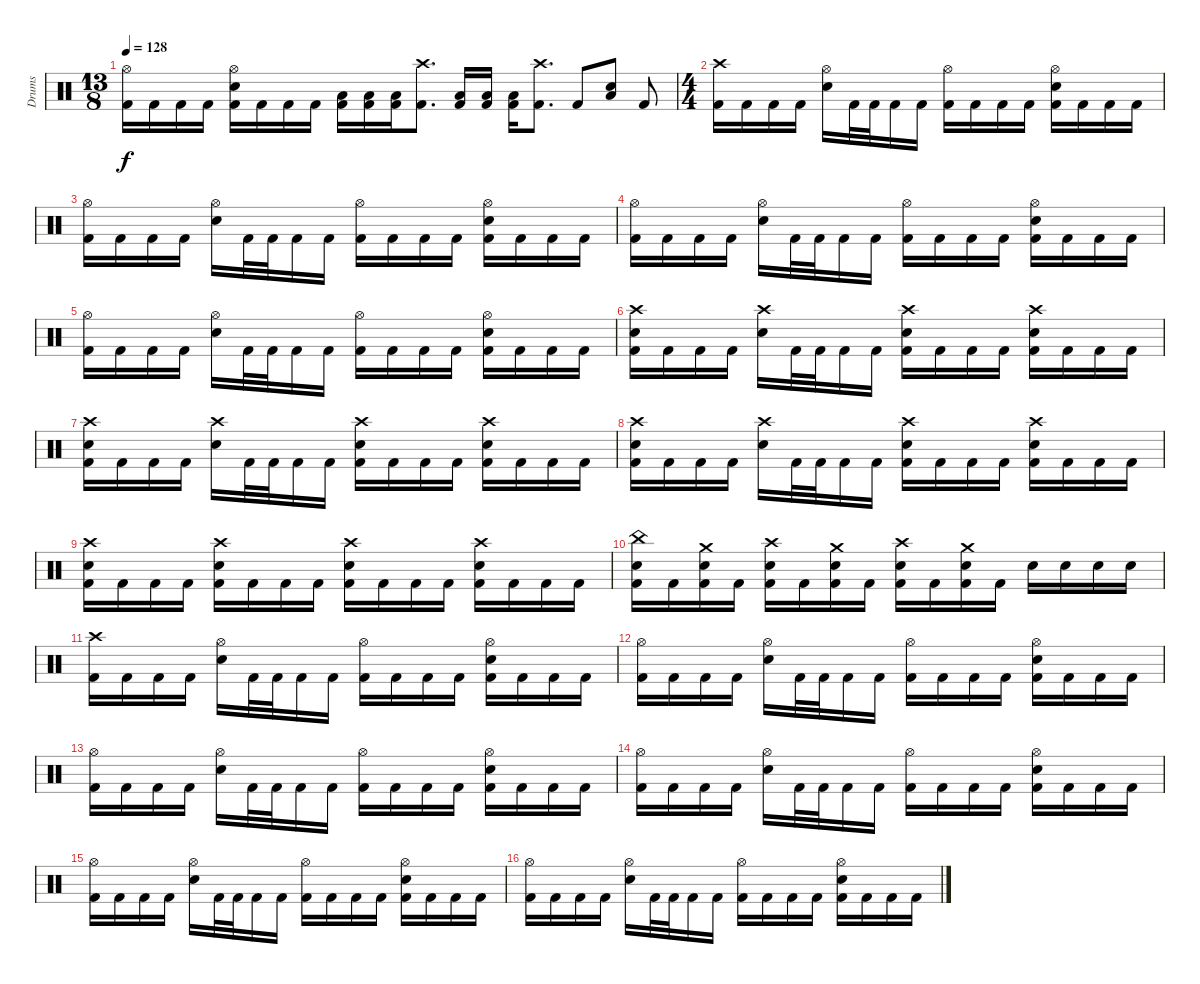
\track ("Drums" "Drums") {instrument percussion}
\staff {score}
\articulation defaults
\ts (13 8)
\tempo 128
\clef neutral
\ks c
("Hi-Hat (open)" "Kick (hit) 2").16{dy f} "Kick (hit) 2".16 "Kick (hit) 2".16 "Kick (hit) 2".16 ("Hi-Hat (open)" "Electric Snare (hit)" "Kick (hit) 2").16 "Kick (hit) 2".16 "Kick (hit) 2".16 "Kick (hit) 2".16 ("Low Tom (hit)" "Kick (hit) 2").16 ("Low Tom (hit)" "Kick (hit) 2").16 ("Low Tom (hit)" "Kick (hit) 2").16 ("Crash high (hit)" "Kick (hit) 2").8{d} ("Low Tom (hit)" "Kick (hit) 2").16 ("Low Tom (hit)" "Kick (hit) 2").16 ("Low Tom (hit)" "Kick (hit) 2").16 ("Crash high (hit)" "Kick (hit) 2").8{d} "Kick (hit) 2".8 ("Low Floor Tom (hit)" "Electric Snare (hit)").8 "Kick (hit) 2".8 |
\ts (4 4)
("Crash high (hit)" "Kick (hit) 2").16 "Kick (hit) 2".16 "Kick (hit) 2".16 "Kick (hit) 2".16 ("Hi-Hat (open)" "Electric Snare (hit)").16 "Kick (hit) 2".32 "Kick (hit) 2".32 "Kick (hit) 2".16 "Kick (hit) 2".16 ("Hi-Hat (open)" "Kick (hit) 2").16 "Kick (hit) 2".16 "Kick (hit) 2".16 "Kick (hit) 2".16 ("Hi-Hat (open)" "Electric Snare (hit)" "Kick (hit) 2").16 "Kick (hit) 2".16 "Kick (hit) 2".16 "Kick (hit) 2".16 |
("Hi-Hat (open)" "Kick (hit) 2").16 "Kick (hit) 2".16 "Kick (hit) 2".16 "Kick (hit) 2".16 ("Hi-Hat (open)" "Electric Snare (hit)").16 "Kick (hit) 2".32 "Kick (hit) 2".32 "Kick (hit) 2".16 "Kick (hit) 2".16 ("Hi-Hat (open)" "Kick (hit) 2").16 "Kick (hit) 2".16 "Kick (hit) 2".16 "Kick (hit) 2".16 ("Hi-Hat (open)" "Electric Snare (hit)" "Kick (hit) 2").16 "Kick (hit) 2".16 "Kick (hit) 2".16 "Kick (hit) 2".16 |
("Hi-Hat (open)" "Kick (hit) 2").16 "Kick (hit) 2".16 "Kick (hit) 2".16 "Kick (hit) 2".16 ("Hi-Hat (open)" "Electric Snare (hit)").16 "Kick (hit) 2".32 "Kick (hit) 2".32 "Kick (hit) 2".16 "Kick (hit) 2".16 ("Hi-Hat (open)" "Kick (hit) 2").16 "Kick (hit) 2".16 "Kick (hit) 2".16 "Kick (hit) 2".16 ("Hi-Hat (open)" "Electric Snare (hit)" "Kick (hit) 2").16 "Kick (hit) 2".16 "Kick (hit) 2".16 "Kick (hit) 2".16 |
("Hi-Hat (open)" "Kick (hit) 2").16 "Kick (hit) 2".16 "Kick (hit) 2".16 "Kick (hit) 2".16 ("Hi-Hat (open)" "Electric Snare (hit)").16 "Kick (hit) 2".32 "Kick (hit) 2".32 "Kick (hit) 2".16 "Kick (hit) 2".16 ("Hi-Hat (open)" "Kick (hit) 2").16 "Kick (hit) 2".16 "Kick (hit) 2".16 "Kick (hit) 2".16 ("Hi-Hat (open)" "Electric Snare (hit)" "Kick (hit) 2").16 "Kick (hit) 2".16 "Kick (hit) 2".16 "Kick (hit) 2".16 |
("Crash high (hit)" "Electric Snare (hit)" "Kick (hit) 2").16 "Kick (hit) 2".16 "Kick (hit) 2".16 "Kick (hit) 2".16 ("Crash high (hit)" "Electric Snare (hit)").16 "Kick (hit) 2".32 "Kick (hit) 2".32 "Kick (hit) 2".16 "Kick (hit) 2".16 ("Crash high (hit)" "Electric Snare (hit)" "Kick (hit) 2").16 "Kick (hit) 2".16 "Kick (hit) 2".16 "Kick (hit) 2".16 ("Crash high (hit)" "Electric Snare (hit)" "Kick (hit) 2").16 "Kick (hit) 2".16 "Kick (hit) 2".16 "Kick (hit) 2".16 |
("Crash high (hit)" "Electric Snare (hit)" "Kick (hit) 2").16 "Kick (hit) 2".16 "Kick (hit) 2".16 "Kick (hit) 2".16 ("Crash high (hit)" "Electric Snare (hit)").16 "Kick (hit) 2".32 "Kick (hit) 2".32 "Kick (hit) 2".16 "Kick (hit) 2".16 ("Crash high (hit)" "Electric Snare (hit)" "Kick (hit) 2").16 "Kick (hit) 2".16 "Kick (hit) 2".16 "Kick (hit) 2".16 ("Crash high (hit)" "Electric Snare (hit)" "Kick (hit) 2").16 "Kick (hit) 2".16 "Kick (hit) 2".16 "Kick (hit) 2".16 |
("Crash high (hit)" "Electric Snare (hit)" "Kick (hit) 2").16 "Kick (hit) 2".16 "Kick (hit) 2".16 "Kick (hit) 2".16 ("Crash high (hit)" "Electric Snare (hit)").16 "Kick (hit) 2".32 "Kick (hit) 2".32 "Kick (hit) 2".16 "Kick (hit) 2".16 ("Crash high (hit)" "Electric Snare (hit)" "Kick (hit) 2").16 "Kick (hit) 2".16 "Kick (hit) 2".16 "Kick (hit) 2".16 ("Crash high (hit)" "Electric Snare (hit)" "Kick (hit) 2").16 "Kick (hit) 2".16 "Kick (hit) 2".16 "Kick (hit) 2".16 |
("Crash high (hit)" "Electric Snare (hit)" "Kick (hit) 2").16 "Kick (hit) 2".16 "Kick (hit) 2".16 "Kick (hit) 2".16 ("Crash high (hit)" "Electric Snare (hit)" "Kick (hit) 2").16 "Kick (hit) 2".16 "Kick (hit) 2".16 "Kick (hit) 2".16 ("Crash high (hit)" "Electric Snare (hit)" "Kick (hit) 2").16 "Kick (hit) 2".16 "Kick (hit) 2".16 "Kick (hit) 2".16 ("Crash high (hit)" "Electric Snare (hit)" "Kick (hit) 2").16 "Kick (hit) 2".16 "Kick (hit) 2".16 "Kick (hit) 2".16 |
("China (hit)" "Electric Snare (hit)" "Kick (hit) 2").16 "Kick (hit) 2".16 ("Crash medium (hit)" "Electric Snare (hit)" "Kick (hit) 2").16 "Kick (hit) 2".16 ("Crash high (hit)" "Electric Snare (hit)" "Kick (hit) 2").16 "Kick (hit) 2".16 ("Crash medium (hit)" "Electric Snare (hit)" "Kick (hit) 2").16 "Kick (hit) 2".16 ("Crash high (hit)" "Electric Snare (hit)" "Kick (hit) 2").16 "Kick (hit) 2".16 ("Crash medium (hit)" "Electric Snare (hit)" "Kick (hit) 2").16 "Kick (hit) 2".16 "Electric Snare (hit)".16 "Electric Snare (hit)".16 "Electric Snare (hit)".16 "Electric Snare (hit)".16 |
("Crash high (hit)" "Kick (hit) 2").16 "Kick (hit) 2".16 "Kick (hit) 2".16 "Kick (hit) 2".16 ("Hi-Hat (open)" "Electric Snare (hit)").16 "Kick (hit) 2".32 "Kick (hit) 2".32 "Kick (hit) 2".16 "Kick (hit) 2".16 ("Hi-Hat (open)" "Kick (hit) 2").16 "Kick (hit) 2".16 "Kick (hit) 2".16 "Kick (hit) 2".16 ("Hi-Hat (open)" "Electric Snare (hit)" "Kick (hit) 2").16 "Kick (hit) 2".16 "Kick (hit) 2".16 "Kick (hit) 2".16 |
("Hi-Hat (open)" "Kick (hit) 2").16 "Kick (hit) 2".16 "Kick (hit) 2".16 "Kick (hit) 2".16 ("Hi-Hat (open)" "Electric Snare (hit)").16 "Kick (hit) 2".32 "Kick (hit) 2".32 "Kick (hit) 2".16 "Kick (hit) 2".16 ("Hi-Hat (open)" "Kick (hit) 2").16 "Kick (hit) 2".16 "Kick (hit) 2".16 "Kick (hit) 2".16 ("Hi-Hat (open)" "Electric Snare (hit)" "Kick (hit) 2").16 "Kick (hit) 2".16 "Kick (hit) 2".16 "Kick (hit) 2".16 |
("Hi-Hat (open)" "Kick (hit) 2").16 "Kick (hit) 2".16 "Kick (hit) 2".16 "Kick (hit) 2".16 ("Hi-Hat (open)" "Electric Snare (hit)").16 "Kick (hit) 2".32 "Kick (hit) 2".32 "Kick (hit) 2".16 "Kick (hit) 2".16 ("Hi-Hat (open)" "Kick (hit) 2").16 "Kick (hit) 2".16 "Kick (hit) 2".16 "Kick (hit) 2".16 ("Hi-Hat (open)" "Electric Snare (hit)" "Kick (hit) 2").16 "Kick (hit) 2".16 "Kick (hit) 2".16 "Kick (hit) 2".16 |
("Hi-Hat (open)" "Kick (hit) 2").16 "Kick (hit) 2".16 "Kick (hit) 2".16 "Kick (hit) 2".16 ("Hi-Hat (open)" "Electric Snare (hit)").16 "Kick (hit) 2".32 "Kick (hit) 2".32 "Kick (hit) 2".16 "Kick (hit) 2".16 ("Hi-Hat (open)" "Kick (hit) 2").16 "Kick (hit) 2".16 "Kick (hit) 2".16 "Kick (hit) 2".16 ("Hi-Hat (open)" "Electric Snare (hit)" "Kick (hit) 2").16 "Kick (hit) 2".16 "Kick (hit) 2".16 "Kick (hit) 2".16 |
("Hi-Hat (open)" "Kick (hit) 2").16 "Kick (hit) 2".16 "Kick (hit) 2".16 "Kick (hit) 2".16 ("Hi-Hat (open)" "Electric Snare (hit)").16 "Kick (hit) 2".32 "Kick (hit) 2".32 "Kick (hit) 2".16 "Kick (hit) 2".16 ("Hi-Hat (open)" "Kick (hit) 2").16 "Kick (hit) 2".16 "Kick (hit) 2".16 "Kick (hit) 2".16 ("Hi-Hat (open)" "Electric Snare (hit)" "Kick (hit) 2").16 "Kick (hit) 2".16 "Kick (hit) 2".16 "Kick (hit) 2".16 |
("Hi-Hat (open)" "Kick (hit) 2").16 "Kick (hit) 2".16 "Kick (hit) 2".16 "Kick (hit) 2".16 ("Hi-Hat (open)" "Electric Snare (hit)").16 "Kick (hit) 2".32 "Kick (hit) 2".32 "Kick (hit) 2".16 "Kick (hit) 2".16 ("Hi-Hat (open)" "Kick (hit) 2").16 "Kick (hit) 2".16 "Kick (hit) 2".16 "Kick (hit) 2".16 ("Hi-Hat (open)" "Electric Snare (hit)" "Kick (hit) 2").16 "Kick (hit) 2".16 "Kick (hit) 2".16 "Kick (hit) 2".16
